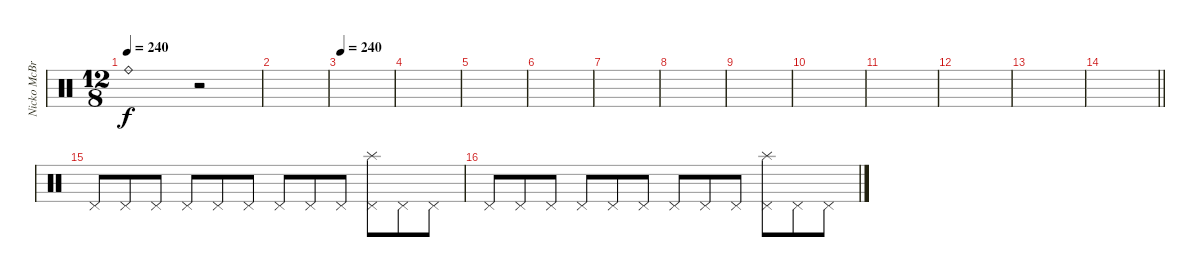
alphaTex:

\track ("Nicko McBrian (Drums)" "Nicko McBr") {instrument percussion}
\staff {score}
\articulation defaults
\ts (12 8)
\tempo 240
\clef neutral
\ks c "Ride (bell)".1{dy f}
r.2 |
|
\tempo 240
|
|
|
|
|
|
|
|
|
|
|
\barLineRight lightlight
|
"Pedal Hi-Hat (hit)".8 "Pedal Hi-Hat (hit)".8 "Pedal Hi-Hat (hit)".8 "Pedal Hi-Hat (hit)".8 "Pedal Hi-Hat (hit)".8 "Pedal Hi-Hat (hit)".8 "Pedal Hi-Hat (hit)".8 "Pedal Hi-Hat (hit)".8 "Pedal Hi-Hat (hit)".8 ("Pedal Hi-Hat (hit)" "Splash (hit)").8 "Pedal Hi-Hat (hit)".8 "Pedal Hi-Hat (hit)".8 |
"Pedal Hi-Hat (hit)".8 "Pedal Hi-Hat (hit)".8 "Pedal Hi-Hat (hit)".8 "Pedal Hi-Hat (hit)".8 "Pedal Hi-Hat (hit)".8 "Pedal Hi-Hat (hit)".8 "Pedal Hi-Hat (hit)".8 "Pedal Hi-Hat (hit)".8 "Pedal Hi-Hat (hit)".8 ("Pedal Hi-Hat (hit)" "Splash (hit)").8 "Pedal Hi-Hat (hit)".8 "Pedal Hi-Hat (hit)".8
